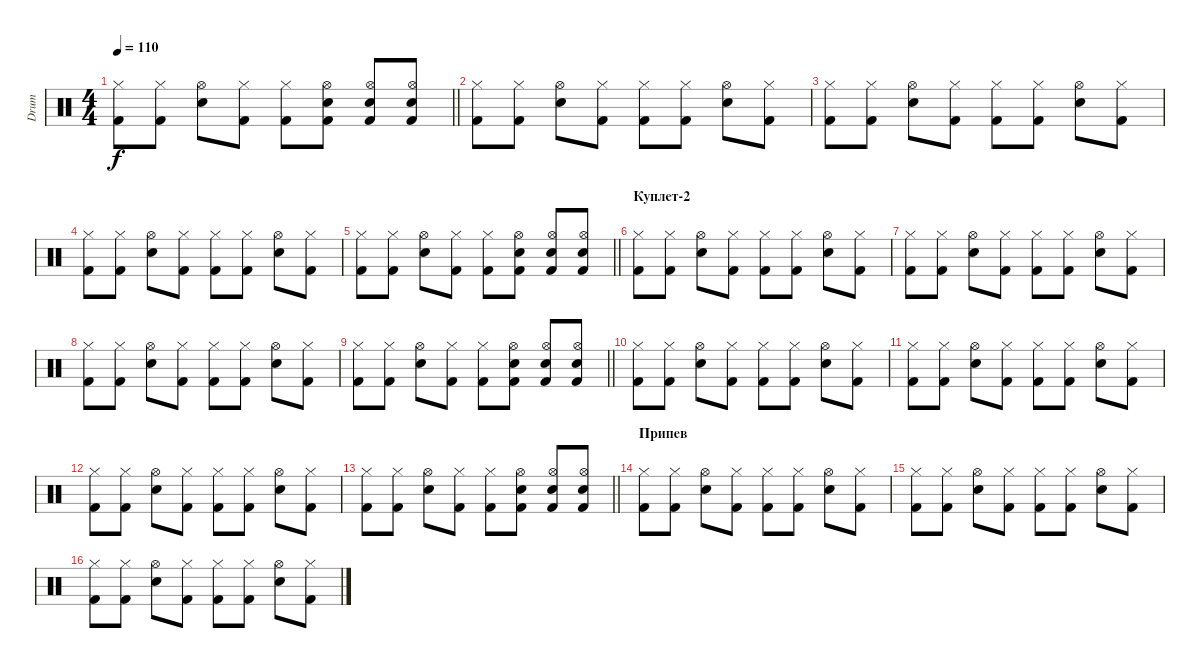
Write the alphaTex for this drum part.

\track ("Drum" "Drum") {instrument percussion}
\staff {score}
\articulation defaults
\ts (4 4)
\tempo 110
\clef neutral
\barLineRight lightlight
\ks c
("Hi-Hat (closed)" "Kick (hit) 2").8{dy f} ("Hi-Hat (closed)" "Kick (hit) 2").8 ("Hi-Hat (open)" "Snare (hit) 2").8 ("Hi-Hat (closed)" "Kick (hit) 2").8 ("Hi-Hat (closed)" "Kick (hit) 2").8 ("Hi-Hat (open)" "Snare (hit) 2" "Kick (hit) 2").8 ("Hi-Hat (open)" "Snare (hit) 2" "Kick (hit) 2").8 ("Hi-Hat (open)" "Snare (hit) 2" "Kick (hit) 2").8 |
("Hi-Hat (closed)" "Kick (hit) 2").8 ("Hi-Hat (closed)" "Kick (hit) 2").8 ("Hi-Hat (open)" "Snare (hit) 2").8 ("Hi-Hat (closed)" "Kick (hit) 2").8 ("Hi-Hat (closed)" "Kick (hit) 2").8 ("Hi-Hat (closed)" "Kick (hit) 2").8 ("Hi-Hat (open)" "Snare (hit) 2").8 ("Hi-Hat (closed)" "Kick (hit) 2").8 |
("Hi-Hat (closed)" "Kick (hit) 2").8 ("Hi-Hat (closed)" "Kick (hit) 2").8 ("Hi-Hat (open)" "Snare (hit) 2").8 ("Hi-Hat (closed)" "Kick (hit) 2").8 ("Hi-Hat (closed)" "Kick (hit) 2").8 ("Hi-Hat (closed)" "Kick (hit) 2").8 ("Hi-Hat (open)" "Snare (hit) 2").8 ("Hi-Hat (closed)" "Kick (hit) 2").8 |
("Hi-Hat (closed)" "Kick (hit) 2").8 ("Hi-Hat (closed)" "Kick (hit) 2").8 ("Hi-Hat (open)" "Snare (hit) 2").8 ("Hi-Hat (closed)" "Kick (hit) 2").8 ("Hi-Hat (closed)" "Kick (hit) 2").8 ("Hi-Hat (closed)" "Kick (hit) 2").8 ("Hi-Hat (open)" "Snare (hit) 2").8 ("Hi-Hat (closed)" "Kick (hit) 2").8 |
\barLineRight lightlight
("Hi-Hat (closed)" "Kick (hit) 2").8 ("Hi-Hat (closed)" "Kick (hit) 2").8 ("Hi-Hat (open)" "Snare (hit) 2").8 ("Hi-Hat (closed)" "Kick (hit) 2").8 ("Hi-Hat (closed)" "Kick (hit) 2").8 ("Hi-Hat (open)" "Snare (hit) 2" "Kick (hit) 2").8 ("Hi-Hat (open)" "Snare (hit) 2" "Kick (hit) 2").8 ("Hi-Hat (open)" "Snare (hit) 2" "Kick (hit) 2").8 |
\section ("" "Куплет-2")
("Hi-Hat (closed)" "Kick (hit) 2").8 ("Hi-Hat (closed)" "Kick (hit) 2").8 ("Hi-Hat (open)" "Snare (hit) 2").8 ("Hi-Hat (closed)" "Kick (hit) 2").8 ("Hi-Hat (closed)" "Kick (hit) 2").8 ("Hi-Hat (closed)" "Kick (hit) 2").8 ("Hi-Hat (open)" "Snare (hit) 2").8 ("Hi-Hat (closed)" "Kick (hit) 2").8 |
("Hi-Hat (closed)" "Kick (hit) 2").8 ("Hi-Hat (closed)" "Kick (hit) 2").8 ("Hi-Hat (open)" "Snare (hit) 2").8 ("Hi-Hat (closed)" "Kick (hit) 2").8 ("Hi-Hat (closed)" "Kick (hit) 2").8 ("Hi-Hat (closed)" "Kick (hit) 2").8 ("Hi-Hat (open)" "Snare (hit) 2").8 ("Hi-Hat (closed)" "Kick (hit) 2").8 |
("Hi-Hat (closed)" "Kick (hit) 2").8 ("Hi-Hat (closed)" "Kick (hit) 2").8 ("Hi-Hat (open)" "Snare (hit) 2").8 ("Hi-Hat (closed)" "Kick (hit) 2").8 ("Hi-Hat (closed)" "Kick (hit) 2").8 ("Hi-Hat (closed)" "Kick (hit) 2").8 ("Hi-Hat (open)" "Snare (hit) 2").8 ("Hi-Hat (closed)" "Kick (hit) 2").8 |
\barLineRight lightlight
("Hi-Hat (closed)" "Kick (hit) 2").8 ("Hi-Hat (closed)" "Kick (hit) 2").8 ("Hi-Hat (open)" "Snare (hit) 2").8 ("Hi-Hat (closed)" "Kick (hit) 2").8 ("Hi-Hat (closed)" "Kick (hit) 2").8 ("Hi-Hat (open)" "Snare (hit) 2" "Kick (hit) 2").8 ("Hi-Hat (open)" "Snare (hit) 2" "Kick (hit) 2").8 ("Hi-Hat (open)" "Snare (hit) 2" "Kick (hit) 2").8 |
("Hi-Hat (closed)" "Kick (hit) 2").8 ("Hi-Hat (closed)" "Kick (hit) 2").8 ("Hi-Hat (open)" "Snare (hit) 2").8 ("Hi-Hat (closed)" "Kick (hit) 2").8 ("Hi-Hat (closed)" "Kick (hit) 2").8 ("Hi-Hat (closed)" "Kick (hit) 2").8 ("Hi-Hat (open)" "Snare (hit) 2").8 ("Hi-Hat (closed)" "Kick (hit) 2").8 |
("Hi-Hat (closed)" "Kick (hit) 2").8 ("Hi-Hat (closed)" "Kick (hit) 2").8 ("Hi-Hat (open)" "Snare (hit) 2").8 ("Hi-Hat (closed)" "Kick (hit) 2").8 ("Hi-Hat (closed)" "Kick (hit) 2").8 ("Hi-Hat (closed)" "Kick (hit) 2").8 ("Hi-Hat (open)" "Snare (hit) 2").8 ("Hi-Hat (closed)" "Kick (hit) 2").8 |
("Hi-Hat (closed)" "Kick (hit) 2").8 ("Hi-Hat (closed)" "Kick (hit) 2").8 ("Hi-Hat (open)" "Snare (hit) 2").8 ("Hi-Hat (closed)" "Kick (hit) 2").8 ("Hi-Hat (closed)" "Kick (hit) 2").8 ("Hi-Hat (closed)" "Kick (hit) 2").8 ("Hi-Hat (open)" "Snare (hit) 2").8 ("Hi-Hat (closed)" "Kick (hit) 2").8 |
\barLineRight lightlight
("Hi-Hat (closed)" "Kick (hit) 2").8 ("Hi-Hat (closed)" "Kick (hit) 2").8 ("Hi-Hat (open)" "Snare (hit) 2").8 ("Hi-Hat (closed)" "Kick (hit) 2").8 ("Hi-Hat (closed)" "Kick (hit) 2").8 ("Hi-Hat (open)" "Snare (hit) 2" "Kick (hit) 2").8 ("Hi-Hat (open)" "Snare (hit) 2" "Kick (hit) 2").8 ("Hi-Hat (open)" "Snare (hit) 2" "Kick (hit) 2").8 |
\section ("" "Припев")
("Hi-Hat (closed)" "Kick (hit) 2").8 ("Hi-Hat (closed)" "Kick (hit) 2").8 ("Hi-Hat (open)" "Snare (hit) 2").8 ("Hi-Hat (closed)" "Kick (hit) 2").8 ("Hi-Hat (closed)" "Kick (hit) 2").8 ("Hi-Hat (closed)" "Kick (hit) 2").8 ("Hi-Hat (open)" "Snare (hit) 2").8 ("Hi-Hat (closed)" "Kick (hit) 2").8 |
("Hi-Hat (closed)" "Kick (hit) 2").8 ("Hi-Hat (closed)" "Kick (hit) 2").8 ("Hi-Hat (open)" "Snare (hit) 2").8 ("Hi-Hat (closed)" "Kick (hit) 2").8 ("Hi-Hat (closed)" "Kick (hit) 2").8 ("Hi-Hat (closed)" "Kick (hit) 2").8 ("Hi-Hat (open)" "Snare (hit) 2").8 ("Hi-Hat (closed)" "Kick (hit) 2").8 |
("Hi-Hat (closed)" "Kick (hit) 2").8 ("Hi-Hat (closed)" "Kick (hit) 2").8 ("Hi-Hat (open)" "Snare (hit) 2").8 ("Hi-Hat (closed)" "Kick (hit) 2").8 ("Hi-Hat (closed)" "Kick (hit) 2").8 ("Hi-Hat (closed)" "Kick (hit) 2").8 ("Hi-Hat (open)" "Snare (hit) 2").8 ("Hi-Hat (closed)" "Kick (hit) 2").8
